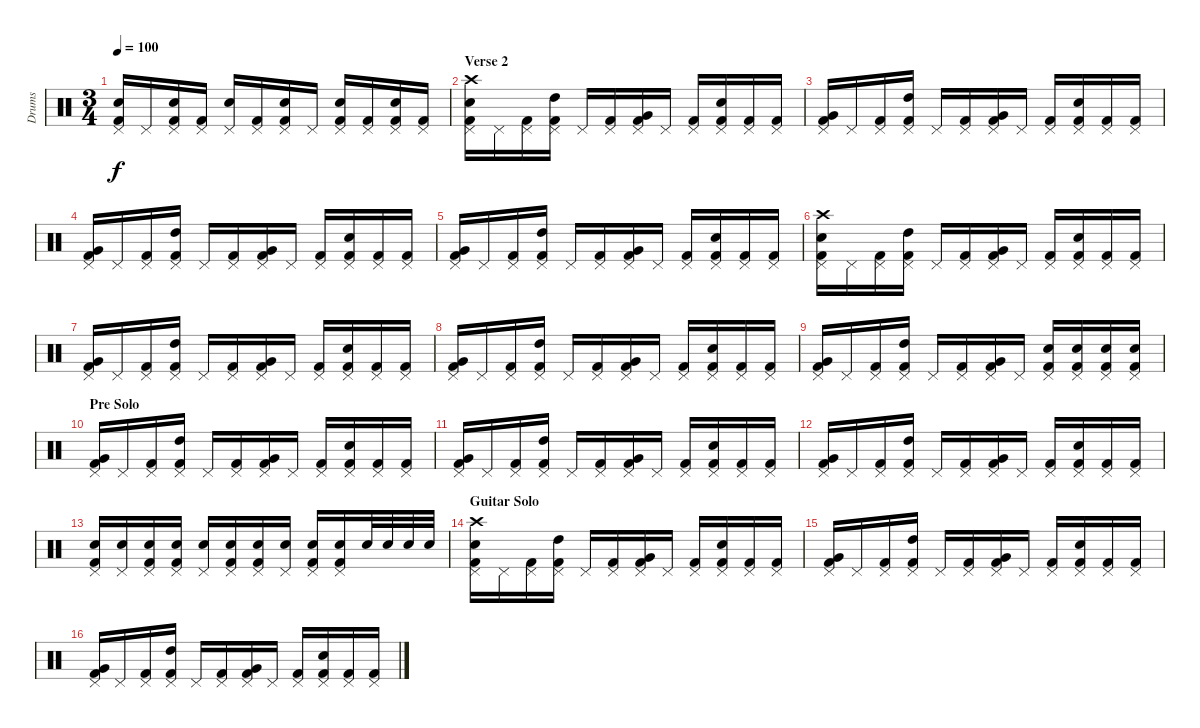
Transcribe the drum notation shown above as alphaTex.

\track ("Drums" "Drums") {instrument percussion}
\staff {score}
\articulation defaults
\ts (3 4)
\tempo 100
\clef neutral
\ks c
("Snare (hit) 2" "Pedal Hi-Hat (hit)" "Kick (hit) 2").16{dy f} "Pedal Hi-Hat (hit)".16 ("Snare (hit) 2" "Pedal Hi-Hat (hit)" "Kick (hit) 2").16 ("Pedal Hi-Hat (hit)" "Kick (hit) 2").16 ("Snare (hit) 2" "Pedal Hi-Hat (hit)").16 ("Pedal Hi-Hat (hit)" "Kick (hit) 2").16 ("Snare (hit) 2" "Pedal Hi-Hat (hit)" "Kick (hit) 2").16 "Pedal Hi-Hat (hit)".16 ("Snare (hit) 2" "Pedal Hi-Hat (hit)" "Kick (hit) 2").16 ("Pedal Hi-Hat (hit)" "Kick (hit) 2").16 ("Snare (hit) 2" "Pedal Hi-Hat (hit)" "Kick (hit) 2").16 ("Pedal Hi-Hat (hit)" "Kick (hit) 2").16 |
\section ("" "Verse 2")
("Crash high (hit)" "Snare (hit) 2" "Pedal Hi-Hat (hit)" "Kick (hit) 2").16 "Pedal Hi-Hat (hit)".16 ("Pedal Hi-Hat (hit)" "Kick (hit) 2").16 ("High Tom (hit)" "Pedal Hi-Hat (hit)" "Kick (hit) 2").16 "Pedal Hi-Hat (hit)".16 ("Pedal Hi-Hat (hit)" "Kick (hit) 2").16 ("Very Low Tom (hit)" "Pedal Hi-Hat (hit)" "Kick (hit) 2").16 "Pedal Hi-Hat (hit)".16 ("Pedal Hi-Hat (hit)" "Kick (hit) 2").16 ("Snare (hit) 2" "Pedal Hi-Hat (hit)" "Kick (hit) 2").16 ("Pedal Hi-Hat (hit)" "Kick (hit) 2").16 ("Pedal Hi-Hat (hit)" "Kick (hit) 2").16 |
("Very Low Tom (hit)" "Pedal Hi-Hat (hit)" "Kick (hit) 2").16 "Pedal Hi-Hat (hit)".16 ("Pedal Hi-Hat (hit)" "Kick (hit) 2").16 ("High Tom (hit)" "Pedal Hi-Hat (hit)" "Kick (hit) 2").16 "Pedal Hi-Hat (hit)".16 ("Pedal Hi-Hat (hit)" "Kick (hit) 2").16 ("Very Low Tom (hit)" "Pedal Hi-Hat (hit)" "Kick (hit) 2").16 "Pedal Hi-Hat (hit)".16 ("Pedal Hi-Hat (hit)" "Kick (hit) 2").16 ("Snare (hit) 2" "Pedal Hi-Hat (hit)" "Kick (hit) 2").16 ("Pedal Hi-Hat (hit)" "Kick (hit) 2").16 ("Pedal Hi-Hat (hit)" "Kick (hit) 2").16 |
("Very Low Tom (hit)" "Pedal Hi-Hat (hit)" "Kick (hit) 2").16 "Pedal Hi-Hat (hit)".16 ("Pedal Hi-Hat (hit)" "Kick (hit) 2").16 ("High Tom (hit)" "Pedal Hi-Hat (hit)" "Kick (hit) 2").16 "Pedal Hi-Hat (hit)".16 ("Pedal Hi-Hat (hit)" "Kick (hit) 2").16 ("Very Low Tom (hit)" "Pedal Hi-Hat (hit)" "Kick (hit) 2").16 "Pedal Hi-Hat (hit)".16 ("Pedal Hi-Hat (hit)" "Kick (hit) 2").16 ("Snare (hit) 2" "Pedal Hi-Hat (hit)" "Kick (hit) 2").16 ("Pedal Hi-Hat (hit)" "Kick (hit) 2").16 ("Pedal Hi-Hat (hit)" "Kick (hit) 2").16 |
("Very Low Tom (hit)" "Pedal Hi-Hat (hit)" "Kick (hit) 2").16 "Pedal Hi-Hat (hit)".16 ("Pedal Hi-Hat (hit)" "Kick (hit) 2").16 ("High Tom (hit)" "Pedal Hi-Hat (hit)" "Kick (hit) 2").16 "Pedal Hi-Hat (hit)".16 ("Pedal Hi-Hat (hit)" "Kick (hit) 2").16 ("Very Low Tom (hit)" "Pedal Hi-Hat (hit)" "Kick (hit) 2").16 "Pedal Hi-Hat (hit)".16 ("Pedal Hi-Hat (hit)" "Kick (hit) 2").16 ("Snare (hit) 2" "Pedal Hi-Hat (hit)" "Kick (hit) 2").16 ("Pedal Hi-Hat (hit)" "Kick (hit) 2").16 ("Pedal Hi-Hat (hit)" "Kick (hit) 2").16 |
("Crash high (hit)" "Snare (hit) 2" "Pedal Hi-Hat (hit)" "Kick (hit) 2").16 "Pedal Hi-Hat (hit)".16 ("Pedal Hi-Hat (hit)" "Kick (hit) 2").16 ("High Tom (hit)" "Pedal Hi-Hat (hit)" "Kick (hit) 2").16 "Pedal Hi-Hat (hit)".16 ("Pedal Hi-Hat (hit)" "Kick (hit) 2").16 ("Very Low Tom (hit)" "Pedal Hi-Hat (hit)" "Kick (hit) 2").16 "Pedal Hi-Hat (hit)".16 ("Pedal Hi-Hat (hit)" "Kick (hit) 2").16 ("Snare (hit) 2" "Pedal Hi-Hat (hit)" "Kick (hit) 2").16 ("Pedal Hi-Hat (hit)" "Kick (hit) 2").16 ("Pedal Hi-Hat (hit)" "Kick (hit) 2").16 |
("Very Low Tom (hit)" "Pedal Hi-Hat (hit)" "Kick (hit) 2").16 "Pedal Hi-Hat (hit)".16 ("Pedal Hi-Hat (hit)" "Kick (hit) 2").16 ("High Tom (hit)" "Pedal Hi-Hat (hit)" "Kick (hit) 2").16 "Pedal Hi-Hat (hit)".16 ("Pedal Hi-Hat (hit)" "Kick (hit) 2").16 ("Very Low Tom (hit)" "Pedal Hi-Hat (hit)" "Kick (hit) 2").16 "Pedal Hi-Hat (hit)".16 ("Pedal Hi-Hat (hit)" "Kick (hit) 2").16 ("Snare (hit) 2" "Pedal Hi-Hat (hit)" "Kick (hit) 2").16 ("Pedal Hi-Hat (hit)" "Kick (hit) 2").16 ("Pedal Hi-Hat (hit)" "Kick (hit) 2").16 |
("Very Low Tom (hit)" "Pedal Hi-Hat (hit)" "Kick (hit) 2").16 "Pedal Hi-Hat (hit)".16 ("Pedal Hi-Hat (hit)" "Kick (hit) 2").16 ("High Tom (hit)" "Pedal Hi-Hat (hit)" "Kick (hit) 2").16 "Pedal Hi-Hat (hit)".16 ("Pedal Hi-Hat (hit)" "Kick (hit) 2").16 ("Very Low Tom (hit)" "Pedal Hi-Hat (hit)" "Kick (hit) 2").16 "Pedal Hi-Hat (hit)".16 ("Pedal Hi-Hat (hit)" "Kick (hit) 2").16 ("Snare (hit) 2" "Pedal Hi-Hat (hit)" "Kick (hit) 2").16 ("Pedal Hi-Hat (hit)" "Kick (hit) 2").16 ("Pedal Hi-Hat (hit)" "Kick (hit) 2").16 |
("Very Low Tom (hit)" "Pedal Hi-Hat (hit)" "Kick (hit) 2").16 "Pedal Hi-Hat (hit)".16 ("Pedal Hi-Hat (hit)" "Kick (hit) 2").16 ("High Tom (hit)" "Pedal Hi-Hat (hit)" "Kick (hit) 2").16 "Pedal Hi-Hat (hit)".16 ("Pedal Hi-Hat (hit)" "Kick (hit) 2").16 ("Very Low Tom (hit)" "Pedal Hi-Hat (hit)" "Kick (hit) 2").16 "Pedal Hi-Hat (hit)".16 ("Snare (hit) 2" "Pedal Hi-Hat (hit)" "Kick (hit) 2").16 ("Snare (hit) 2" "Pedal Hi-Hat (hit)" "Kick (hit) 2").16 ("Snare (hit) 2" "Pedal Hi-Hat (hit)" "Kick (hit) 2").16 ("Snare (hit) 2" "Pedal Hi-Hat (hit)" "Kick (hit) 2").16 |
\section ("" "Pre Solo")
("Very Low Tom (hit)" "Pedal Hi-Hat (hit)" "Kick (hit) 2").16 "Pedal Hi-Hat (hit)".16 ("Pedal Hi-Hat (hit)" "Kick (hit) 2").16 ("High Tom (hit)" "Pedal Hi-Hat (hit)" "Kick (hit) 2").16 "Pedal Hi-Hat (hit)".16 ("Pedal Hi-Hat (hit)" "Kick (hit) 2").16 ("Very Low Tom (hit)" "Pedal Hi-Hat (hit)" "Kick (hit) 2").16 "Pedal Hi-Hat (hit)".16 ("Pedal Hi-Hat (hit)" "Kick (hit) 2").16 ("Snare (hit) 2" "Pedal Hi-Hat (hit)" "Kick (hit) 2").16 ("Pedal Hi-Hat (hit)" "Kick (hit) 2").16 ("Pedal Hi-Hat (hit)" "Kick (hit) 2").16 |
("Very Low Tom (hit)" "Pedal Hi-Hat (hit)" "Kick (hit) 2").16 "Pedal Hi-Hat (hit)".16 ("Pedal Hi-Hat (hit)" "Kick (hit) 2").16 ("High Tom (hit)" "Pedal Hi-Hat (hit)" "Kick (hit) 2").16 "Pedal Hi-Hat (hit)".16 ("Pedal Hi-Hat (hit)" "Kick (hit) 2").16 ("Very Low Tom (hit)" "Pedal Hi-Hat (hit)" "Kick (hit) 2").16 "Pedal Hi-Hat (hit)".16 ("Pedal Hi-Hat (hit)" "Kick (hit) 2").16 ("Snare (hit) 2" "Pedal Hi-Hat (hit)" "Kick (hit) 2").16 ("Pedal Hi-Hat (hit)" "Kick (hit) 2").16 ("Pedal Hi-Hat (hit)" "Kick (hit) 2").16 |
("Very Low Tom (hit)" "Pedal Hi-Hat (hit)" "Kick (hit) 2").16 "Pedal Hi-Hat (hit)".16 ("Pedal Hi-Hat (hit)" "Kick (hit) 2").16 ("High Tom (hit)" "Pedal Hi-Hat (hit)" "Kick (hit) 2").16 "Pedal Hi-Hat (hit)".16 ("Pedal Hi-Hat (hit)" "Kick (hit) 2").16 ("Very Low Tom (hit)" "Pedal Hi-Hat (hit)" "Kick (hit) 2").16 "Pedal Hi-Hat (hit)".16 ("Pedal Hi-Hat (hit)" "Kick (hit) 2").16 ("Snare (hit) 2" "Pedal Hi-Hat (hit)" "Kick (hit) 2").16 ("Pedal Hi-Hat (hit)" "Kick (hit) 2").16 ("Pedal Hi-Hat (hit)" "Kick (hit) 2").16 |
("Snare (hit) 2" "Pedal Hi-Hat (hit)" "Kick (hit) 2").16 ("Electric Snare (hit)" "Pedal Hi-Hat (hit)").16 ("Electric Snare (hit)" "Pedal Hi-Hat (hit)" "Kick (hit) 2").16 ("Snare (hit) 2" "Pedal Hi-Hat (hit)" "Kick (hit) 2").16 ("Electric Snare (hit)" "Pedal Hi-Hat (hit)").16 ("Electric Snare (hit)" "Pedal Hi-Hat (hit)" "Kick (hit) 2").16 ("Snare (hit) 2" "Pedal Hi-Hat (hit)" "Kick (hit) 2").16 ("Electric Snare (hit)" "Pedal Hi-Hat (hit)").16 ("Electric Snare (hit)" "Pedal Hi-Hat (hit)" "Kick (hit) 2").16 ("Snare (hit) 2" "Pedal Hi-Hat (hit)" "Kick (hit) 2").16 "Electric Snare (hit)".32 "Electric Snare (hit)".32 "Electric Snare (hit)".32 "Electric Snare (hit)".32 |
\section ("" "Guitar Solo")
("Crash high (hit)" "Snare (hit) 2" "Pedal Hi-Hat (hit)" "Kick (hit) 2").16 "Pedal Hi-Hat (hit)".16 ("Pedal Hi-Hat (hit)" "Kick (hit) 2").16 ("High Tom (hit)" "Pedal Hi-Hat (hit)" "Kick (hit) 2").16 "Pedal Hi-Hat (hit)".16 ("Pedal Hi-Hat (hit)" "Kick (hit) 2").16 ("Very Low Tom (hit)" "Pedal Hi-Hat (hit)" "Kick (hit) 2").16 "Pedal Hi-Hat (hit)".16 ("Pedal Hi-Hat (hit)" "Kick (hit) 2").16 ("Snare (hit) 2" "Pedal Hi-Hat (hit)" "Kick (hit) 2").16 ("Pedal Hi-Hat (hit)" "Kick (hit) 2").16 ("Pedal Hi-Hat (hit)" "Kick (hit) 2").16 |
("Very Low Tom (hit)" "Pedal Hi-Hat (hit)" "Kick (hit) 2").16 "Pedal Hi-Hat (hit)".16 ("Pedal Hi-Hat (hit)" "Kick (hit) 2").16 ("High Tom (hit)" "Pedal Hi-Hat (hit)" "Kick (hit) 2").16 "Pedal Hi-Hat (hit)".16 ("Pedal Hi-Hat (hit)" "Kick (hit) 2").16 ("Very Low Tom (hit)" "Pedal Hi-Hat (hit)" "Kick (hit) 2").16 "Pedal Hi-Hat (hit)".16 ("Pedal Hi-Hat (hit)" "Kick (hit) 2").16 ("Snare (hit) 2" "Pedal Hi-Hat (hit)" "Kick (hit) 2").16 ("Pedal Hi-Hat (hit)" "Kick (hit) 2").16 ("Pedal Hi-Hat (hit)" "Kick (hit) 2").16 |
("Very Low Tom (hit)" "Pedal Hi-Hat (hit)" "Kick (hit) 2").16 "Pedal Hi-Hat (hit)".16 ("Pedal Hi-Hat (hit)" "Kick (hit) 2").16 ("High Tom (hit)" "Pedal Hi-Hat (hit)" "Kick (hit) 2").16 "Pedal Hi-Hat (hit)".16 ("Pedal Hi-Hat (hit)" "Kick (hit) 2").16 ("Very Low Tom (hit)" "Pedal Hi-Hat (hit)" "Kick (hit) 2").16 "Pedal Hi-Hat (hit)".16 ("Pedal Hi-Hat (hit)" "Kick (hit) 2").16 ("Snare (hit) 2" "Pedal Hi-Hat (hit)" "Kick (hit) 2").16 ("Pedal Hi-Hat (hit)" "Kick (hit) 2").16 ("Pedal Hi-Hat (hit)" "Kick (hit) 2").16
